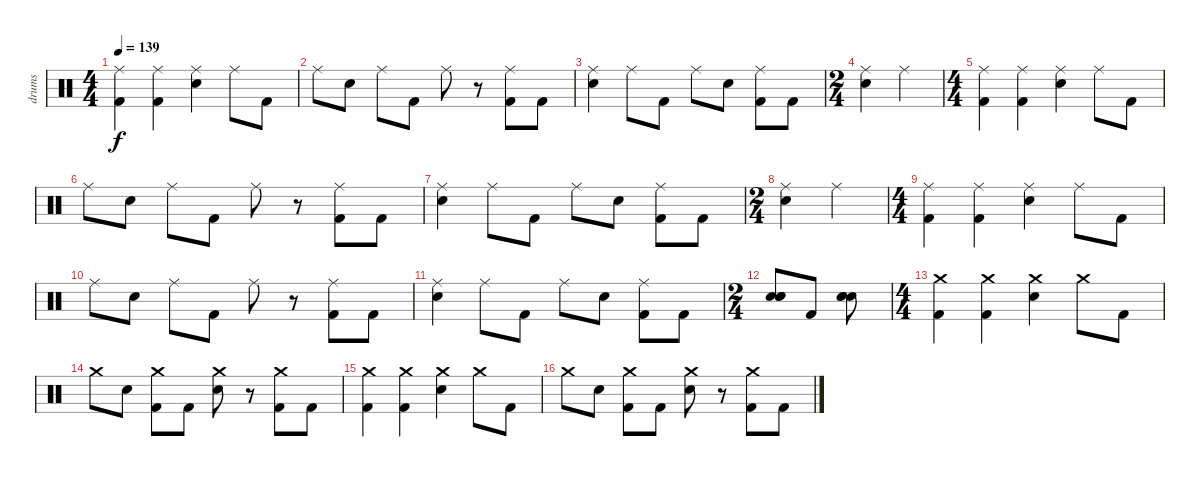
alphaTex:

\track ("drums" "drums") {instrument percussion}
\staff {score}
\articulation defaults
\ts (4 4)
\tempo 139
\clef neutral
\ks c
("Ride (middle)" "Kick (hit) 2").4{dy f} ("Ride (middle)" "Kick (hit) 2").4 ("Ride (middle)" "Electric Snare (hit)").4 "Ride (middle)".8 "Kick (hit) 2".8 |
"Ride (middle)".8 "Electric Snare (hit)".8 "Ride (middle)".8 "Kick (hit) 2".8 "Ride (middle)".8 r.8 ("Ride (middle)" "Kick (hit) 2").8 "Kick (hit) 2".8 |
("Ride (middle)" "Electric Snare (hit)").4 "Ride (middle)".8 "Kick (hit) 2".8 "Ride (middle)".8 "Electric Snare (hit)".8 ("Ride (middle)" "Kick (hit) 2").8 "Kick (hit) 2".8 |
\ts (2 4)
("Ride (middle)" "Electric Snare (hit)").4 "Ride (middle)".4 |
\ts (4 4)
("Ride (middle)" "Kick (hit) 2").4 ("Ride (middle)" "Kick (hit) 2").4 ("Ride (middle)" "Electric Snare (hit)").4 "Ride (middle)".8 "Kick (hit) 2".8 |
"Ride (middle)".8 "Electric Snare (hit)".8 "Ride (middle)".8 "Kick (hit) 2".8 "Ride (middle)".8 r.8 ("Ride (middle)" "Kick (hit) 2").8 "Kick (hit) 2".8 |
("Ride (middle)" "Electric Snare (hit)").4 "Ride (middle)".8 "Kick (hit) 2".8 "Ride (middle)".8 "Electric Snare (hit)".8 ("Ride (middle)" "Kick (hit) 2").8 "Kick (hit) 2".8 |
\ts (2 4)
("Ride (middle)" "Electric Snare (hit)").4 "Ride (middle)".4 |
\ts (4 4)
("Ride (middle)" "Kick (hit) 2").4 ("Ride (middle)" "Kick (hit) 2").4 ("Ride (middle)" "Electric Snare (hit)").4 "Ride (middle)".8 "Kick (hit) 2".8 |
"Ride (middle)".8 "Electric Snare (hit)".8 "Ride (middle)".8 "Kick (hit) 2".8 "Ride (middle)".8 r.8 ("Ride (middle)" "Kick (hit) 2").8 "Kick (hit) 2".8 |
("Ride (middle)" "Electric Snare (hit)").4 "Ride (middle)".8 "Kick (hit) 2".8 "Ride (middle)".8 "Electric Snare (hit)".8 ("Ride (middle)" "Kick (hit) 2").8 "Kick (hit) 2".8 |
\ts (2 4)
("Electric Snare (hit)" "Snare (hit) 2" "Electric Snare (hit)").8 "Kick (hit) 2".8 ("Electric Snare (hit)" "Snare (hit) 2" "Electric Snare (hit)").8 |
\ts (4 4)
("Crash medium (hit)" "Kick (hit) 2").4 ("Crash medium (hit)" "Kick (hit) 2").4 ("Crash medium (hit)" "Electric Snare (hit)").4 "Crash medium (hit)".8 "Kick (hit) 2".8 |
"Crash medium (hit)".8 "Electric Snare (hit)".8 ("Crash medium (hit)" "Kick (hit) 2").8 "Kick (hit) 2".8 ("Crash medium (hit)" "Electric Snare (hit)").8 r.8 ("Crash medium (hit)" "Kick (hit) 2").8 "Kick (hit) 2".8 |
("Crash medium (hit)" "Kick (hit) 2").4 ("Crash medium (hit)" "Kick (hit) 2").4 ("Crash medium (hit)" "Electric Snare (hit)").4 "Crash medium (hit)".8 "Kick (hit) 2".8 |
"Crash medium (hit)".8 "Electric Snare (hit)".8 ("Crash medium (hit)" "Kick (hit) 2").8 "Kick (hit) 2".8 ("Crash medium (hit)" "Electric Snare (hit)").8 r.8 ("Crash medium (hit)" "Kick (hit) 2").8 "Kick (hit) 2".8
